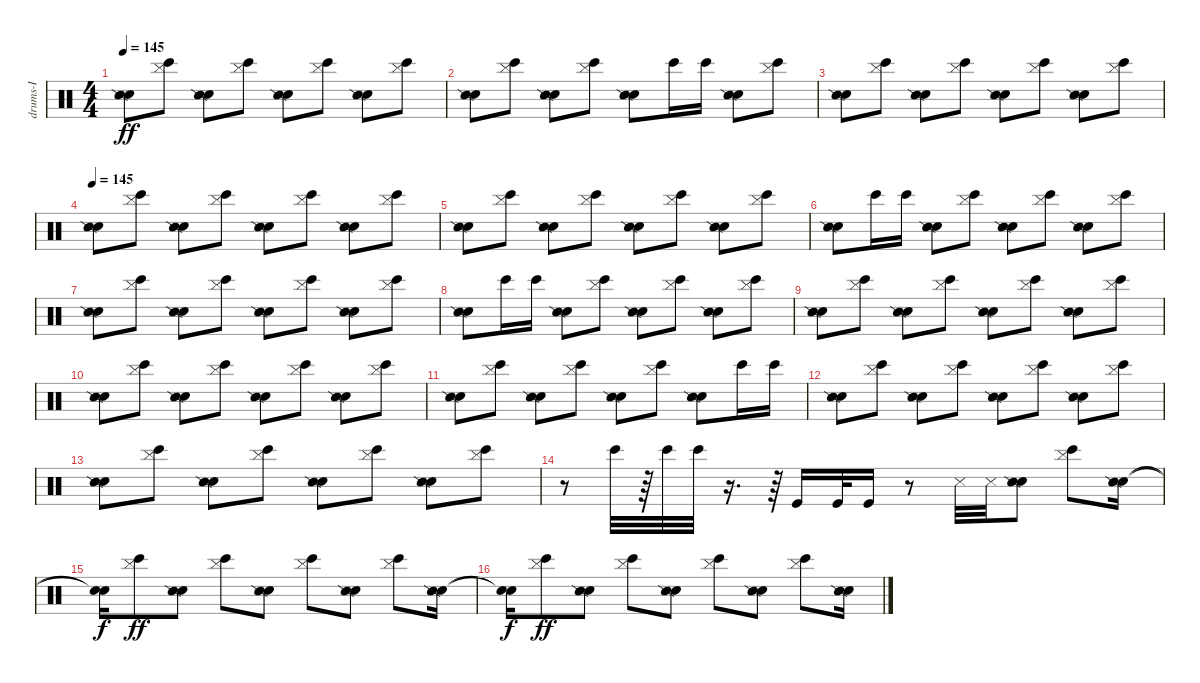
\track ("drums-I" "drums-I") {instrument percussion}
\staff {score}
\articulation defaults
\ts (4 4)
\tempo 145
\clef neutral
\ks c
("Snare (hit)" "Snare (side stick) 2").8{dy ff} ("Bongo High (hit)" "Cymbal (hit)").8 ("Snare (hit)" "Snare (side stick) 2").8 ("Bongo High (hit)" "Cymbal (hit)").8 ("Snare (hit)" "Snare (side stick) 2").8 ("Bongo High (hit)" "Cymbal (hit)").8 ("Snare (hit)" "Snare (side stick) 2").8 ("Bongo High (hit)" "Cymbal (hit)").8 |
("Snare (hit)" "Snare (side stick) 2").8 ("Bongo High (hit)" "Cymbal (hit)").8 ("Snare (hit)" "Snare (side stick) 2").8 ("Bongo High (hit)" "Cymbal (hit)").8 ("Snare (hit)" "Snare (side stick) 2").8 "Bongo High (hit)".16 "Bongo High (hit)".16 ("Snare (hit)" "Snare (side stick) 2").8 ("Bongo High (hit)" "Cymbal (hit)").8 |
("Snare (hit)" "Snare (side stick) 2").8 ("Bongo High (hit)" "Cymbal (hit)").8 ("Snare (hit)" "Snare (side stick) 2").8 ("Bongo High (hit)" "Cymbal (hit)").8 ("Snare (hit)" "Snare (side stick) 2").8 ("Bongo High (hit)" "Cymbal (hit)").8 ("Snare (hit)" "Snare (side stick) 2").8 ("Bongo High (hit)" "Cymbal (hit)").8 |
\tempo 145
("Snare (hit)" "Snare (side stick) 2").8 ("Bongo High (hit)" "Cymbal (hit)").8 ("Snare (hit)" "Snare (side stick) 2").8 ("Bongo High (hit)" "Cymbal (hit)").8 ("Snare (hit)" "Snare (side stick) 2").8 ("Bongo High (hit)" "Cymbal (hit)").8 ("Snare (hit)" "Snare (side stick) 2").8 ("Bongo High (hit)" "Cymbal (hit)").8 |
("Snare (hit)" "Snare (side stick) 2").8 ("Bongo High (hit)" "Cymbal (hit)").8 ("Snare (hit)" "Snare (side stick) 2").8 ("Bongo High (hit)" "Cymbal (hit)").8 ("Snare (hit)" "Snare (side stick) 2").8 ("Bongo High (hit)" "Cymbal (hit)").8 ("Snare (hit)" "Snare (side stick) 2").8 ("Bongo High (hit)" "Cymbal (hit)").8 |
("Snare (hit)" "Snare (side stick) 2").8 "Bongo High (hit)".16 "Bongo High (hit)".16 ("Snare (hit)" "Snare (side stick) 2").8 ("Bongo High (hit)" "Cymbal (hit)").8 ("Snare (hit)" "Snare (side stick) 2").8 ("Bongo High (hit)" "Cymbal (hit)").8 ("Snare (hit)" "Snare (side stick) 2").8 ("Bongo High (hit)" "Cymbal (hit)").8 |
("Snare (hit)" "Snare (side stick) 2").8 ("Bongo High (hit)" "Cymbal (hit)").8 ("Snare (hit)" "Snare (side stick) 2").8 ("Bongo High (hit)" "Cymbal (hit)").8 ("Snare (hit)" "Snare (side stick) 2").8 ("Bongo High (hit)" "Cymbal (hit)").8 ("Snare (hit)" "Snare (side stick) 2").8 ("Bongo High (hit)" "Cymbal (hit)").8 |
("Snare (hit)" "Snare (side stick) 2").8 "Bongo High (hit)".16 "Bongo High (hit)".16 ("Snare (hit)" "Snare (side stick) 2").8 ("Bongo High (hit)" "Cymbal (hit)").8 ("Snare (hit)" "Snare (side stick) 2").8 ("Bongo High (hit)" "Cymbal (hit)").8 ("Snare (hit)" "Snare (side stick) 2").8 ("Bongo High (hit)" "Cymbal (hit)").8 |
("Snare (hit)" "Snare (side stick) 2").8 ("Bongo High (hit)" "Cymbal (hit)").8 ("Snare (hit)" "Snare (side stick) 2").8 ("Bongo High (hit)" "Cymbal (hit)").8 ("Snare (hit)" "Snare (side stick) 2").8 ("Bongo High (hit)" "Cymbal (hit)").8 ("Snare (hit)" "Snare (side stick) 2").8 ("Bongo High (hit)" "Cymbal (hit)").8 |
("Snare (hit)" "Snare (side stick) 2").8 ("Bongo High (hit)" "Cymbal (hit)").8 ("Snare (hit)" "Snare (side stick) 2").8 ("Bongo High (hit)" "Cymbal (hit)").8 ("Snare (hit)" "Snare (side stick) 2").8 ("Bongo High (hit)" "Cymbal (hit)").8 ("Snare (hit)" "Snare (side stick) 2").8 ("Bongo High (hit)" "Cymbal (hit)").8 |
("Snare (hit)" "Snare (side stick) 2").8 ("Bongo High (hit)" "Cymbal (hit)").8 ("Snare (hit)" "Snare (side stick) 2").8 ("Bongo High (hit)" "Cymbal (hit)").8 ("Snare (hit)" "Snare (side stick) 2").8 ("Bongo High (hit)" "Cymbal (hit)").8 ("Snare (hit)" "Snare (side stick) 2").8 "Bongo High (hit)".16 "Bongo High (hit)".16 |
("Snare (hit)" "Snare (side stick) 2").8 ("Bongo High (hit)" "Cymbal (hit)").8 ("Snare (hit)" "Snare (side stick) 2").8 ("Bongo High (hit)" "Cymbal (hit)").8 ("Snare (hit)" "Snare (side stick) 2").8 ("Bongo High (hit)" "Cymbal (hit)").8 ("Snare (hit)" "Snare (side stick) 2").8 ("Bongo High (hit)" "Cymbal (hit)").8 |
("Snare (hit)" "Snare (side stick) 2").8 ("Bongo High (hit)" "Cymbal (hit)").8 ("Snare (hit)" "Snare (side stick) 2").8 ("Bongo High (hit)" "Cymbal (hit)").8 ("Snare (hit)" "Snare (side stick) 2").8 ("Bongo High (hit)" "Cymbal (hit)").8 ("Snare (hit)" "Snare (side stick) 2").8 ("Bongo High (hit)" "Cymbal (hit)").8 |
r.8 "Bongo High (hit)".32 r.64 "Bongo High (hit)".32 "Bongo High (hit)".32 r.16{d} r.64 "Kick (hit)".16 "Kick (hit)".32 "Kick (hit)".16 r.8 "Metronome (hit)".32 "Metronome (hit)".32 ("Snare (hit)" "Snare (side stick) 2").8 ("Bongo High (hit)" "Cymbal (hit)").8 ("Snare (hit)" "Snare (side stick) 2").16 |
("Snare (hit)"{t} "Snare (hit)"{t}).16{dy f} ("Bongo High (hit)" "Cymbal (hit)").8{dy ff} ("Snare (hit)" "Snare (side stick) 2").8 ("Bongo High (hit)" "Cymbal (hit)").8 ("Snare (hit)" "Snare (side stick) 2").8 ("Bongo High (hit)" "Cymbal (hit)").8 ("Snare (hit)" "Snare (side stick) 2").8 ("Bongo High (hit)" "Cymbal (hit)").8 ("Snare (hit)" "Snare (side stick) 2").16 |
("Snare (hit)"{t} "Snare (hit)"{t}).16{dy f} ("Bongo High (hit)" "Cymbal (hit)").8{dy ff} ("Snare (hit)" "Snare (side stick) 2").8 ("Bongo High (hit)" "Cymbal (hit)").8 ("Snare (hit)" "Snare (side stick) 2").8 ("Bongo High (hit)" "Cymbal (hit)").8 ("Snare (hit)" "Snare (side stick) 2").8 ("Bongo High (hit)" "Cymbal (hit)").8 ("Snare (hit)" "Snare (side stick) 2").16
